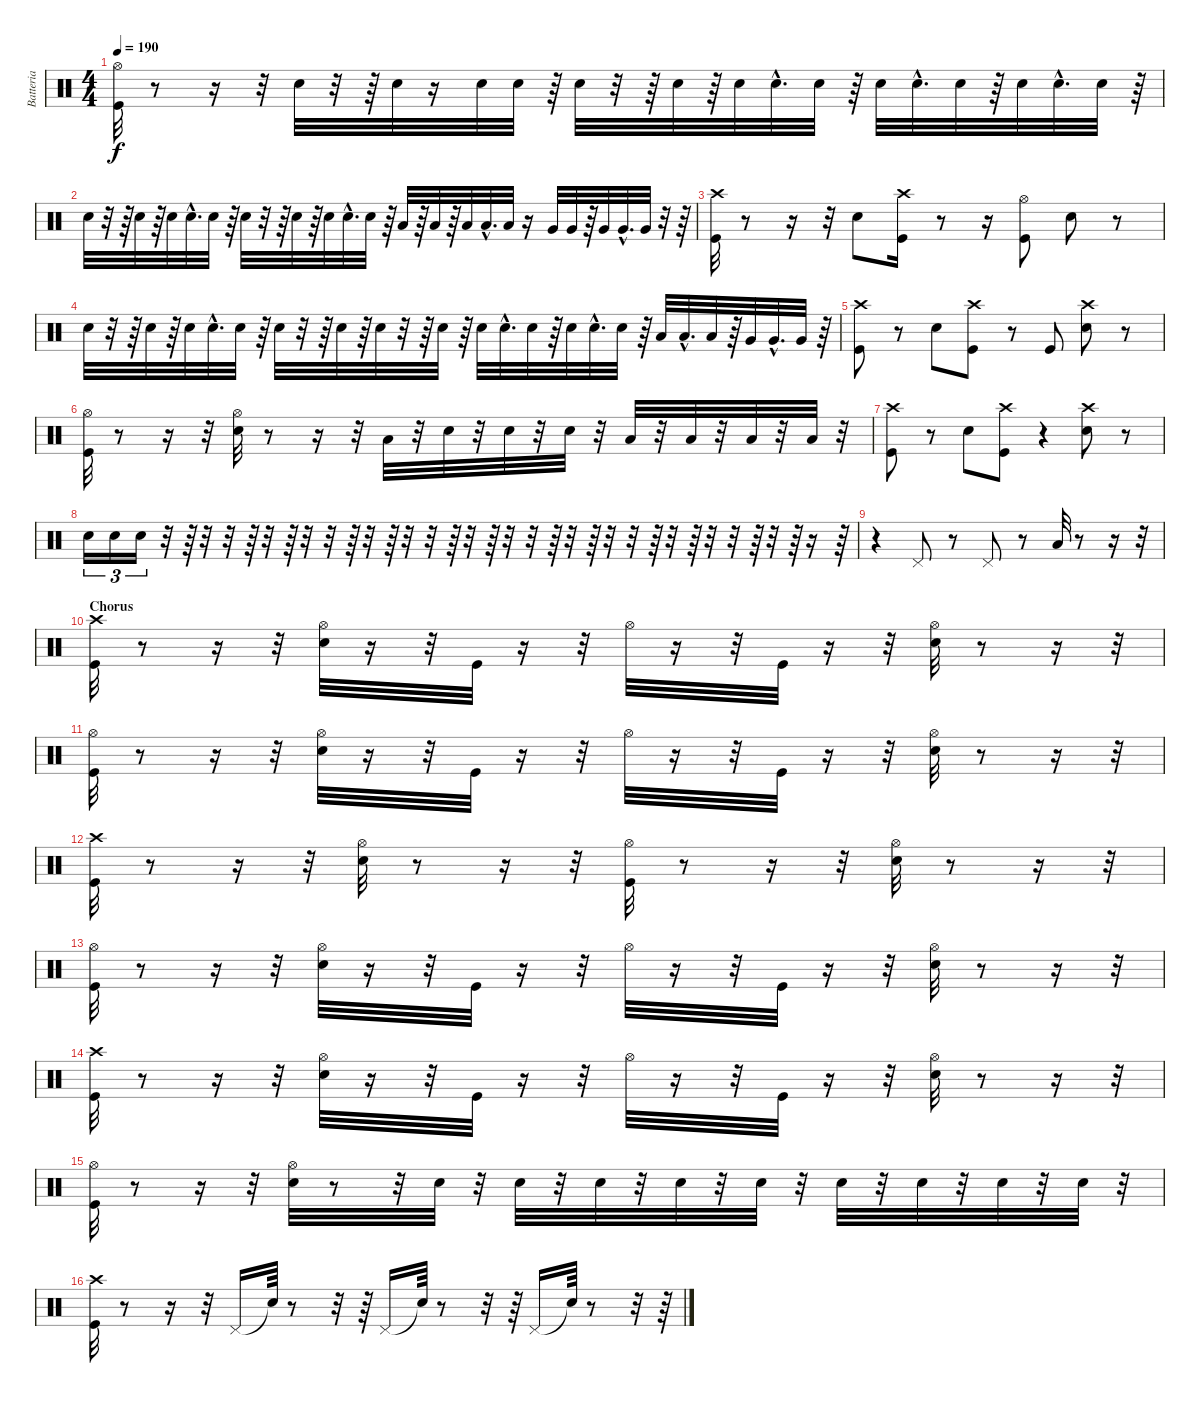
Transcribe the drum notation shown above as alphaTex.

\track ("Batteria" "Batteria") {instrument percussion}
\staff {score}
\articulation defaults
\ts (4 4)
\tempo 190
\clef neutral
\ks c
("Hi-Hat (open)" "Kick (hit)").32{dy f} r.8 r.16 r.32 "Snare (hit) 2".32 r.32 r.64 "Snare (hit) 2".32 r.16 "Snare (hit) 2".32 "Snare (hit) 2".32 r.64 "Snare (hit) 2".32 r.32 r.64 "Snare (hit) 2".32 r.64 "Snare (hit) 2".32 "Snare (hit) 2"{hac}.32{d} "Snare (hit) 2".32 r.64 "Snare (hit) 2".32 "Snare (hit) 2"{hac}.32{d} "Snare (hit) 2".32 r.64 "Snare (hit) 2".32 "Snare (hit) 2"{hac}.32{d} "Snare (hit) 2".32 r.64 |
"Snare (hit) 2".32 r.32 r.64 "Snare (hit) 2".32 r.64 "Snare (hit) 2".32 "Snare (hit) 2"{hac}.32{d} "Snare (hit) 2".32 r.64 "Snare (hit) 2".32 r.32 r.64 "Snare (hit) 2".32 r.64 "Snare (hit) 2".32 "Snare (hit) 2"{hac}.32{d} "Snare (hit) 2".32 r.64 "Low Tom (hit)".32 r.64 "Low Tom (hit)".32 r.64 "Low Tom (hit)".32 "Low Tom (hit)"{hac}.32{d} "Low Tom (hit)".32 r.16 "Very Low Tom (hit)".32 "Very Low Tom (hit)".32 r.64 "Very Low Tom (hit)".32 "Very Low Tom (hit)"{hac}.32{d} "Very Low Tom (hit)".32 r.32 r.64 |
("Crash high (hit)" "Kick (hit)").32 r.8 r.16 r.32 "Snare (hit) 2".8 ("Crash high (hit)" "Kick (hit)").16 r.8 r.16 ("Hi-Hat (open)" "Kick (hit)").8 "Snare (hit) 2".8 r.8 |
"Snare (hit) 2".32 r.32 r.64 "Snare (hit) 2".32 r.64 "Snare (hit) 2".32 "Snare (hit) 2"{hac}.32{d} "Snare (hit) 2".32 r.64 "Snare (hit) 2".32 r.32 r.64 "Snare (hit) 2".32 r.64 "Snare (hit) 2".32 r.32 r.64 "Snare (hit) 2".32 r.64 "Snare (hit) 2".32 "Snare (hit) 2"{hac}.32{d} "Snare (hit) 2".32 r.64 "Snare (hit) 2".32 "Snare (hit) 2"{hac}.32{d} "Snare (hit) 2".32 r.64 "Low Tom (hit)".32 "Low Tom (hit)"{hac}.32{d} "Low Tom (hit)".32 r.64 "Very Low Tom (hit)".32 "Very Low Tom (hit)"{hac}.32{d} "Very Low Tom (hit)".32 r.64 |
("Crash high (hit)" "Kick (hit)").8 r.8 "Snare (hit) 2".8 ("Kick (hit)" "Crash high (hit)").8 r.8 "Kick (hit)".8 ("Crash high (hit)" "Snare (hit) 2").8 r.8 |
("Hi-Hat (open)" "Kick (hit)").32 r.8 r.16 r.32 ("Hi-Hat (open)" "Snare (hit) 2").32 r.8 r.16 r.32 "Low Tom (hit)".32 r.32 "Snare (hit) 2".32 r.32 "Snare (hit) 2".32 r.32 "Snare (hit) 2".32 r.32 "Low Tom (hit)".32 r.32 "Low Tom (hit)".32 r.32 "Low Tom (hit)".32 r.32 "Low Tom (hit)".32 r.32 |
("Crash high (hit)" "Kick (hit)").8 r.8 "Snare (hit) 2".8 ("Crash high (hit)" "Kick (hit)").8 r.4 ("Crash high (hit)" "Snare (hit) 2").8 r.8 |
"Snare (hit) 2".16{tu (3 2)} "Snare (hit) 2".16{tu (3 2)} "Snare (hit) 2".16{tu (3 2)} r.32 r.64 r.32 r.32 r.64 r.32 r.64 r.32 r.32 r.64 r.32 r.64 r.32 r.32 r.64 r.32 r.64 r.32 r.32 r.64 r.32 r.64 r.32 r.32 r.64 r.32 r.64 r.32 r.32 r.64 r.32 r.64 r.16 r.64 |
r.4 "Pedal Hi-Hat (hit)".8 r.8 "Pedal Hi-Hat (hit)".8 r.8 "Low Tom (hit)".32 r.8 r.16 r.32 |
\section ("" "Chorus")
("Crash high (hit)" "Kick (hit)").32 r.8 r.16 r.32 ("Hi-Hat (open)" "Snare (hit) 2").32 r.16 r.32 "Kick (hit)".32 r.16 r.32 "Hi-Hat (open)".32 r.16 r.32 "Kick (hit)".32 r.16 r.32 ("Hi-Hat (open)" "Snare (hit) 2").32 r.8 r.16 r.32 |
("Kick (hit)" "Hi-Hat (open)").32 r.8 r.16 r.32 ("Snare (hit) 2" "Hi-Hat (open)").32 r.16 r.32 "Kick (hit)".32 r.16 r.32 "Hi-Hat (open)".32 r.16 r.32 "Kick (hit)".32 r.16 r.32 ("Snare (hit) 2" "Hi-Hat (open)").32 r.8 r.16 r.32 |
("Kick (hit)" "Crash high (hit)").32 r.8 r.16 r.32 ("Snare (hit) 2" "Hi-Hat (open)").32 r.8 r.16 r.32 ("Kick (hit)" "Hi-Hat (open)").32 r.8 r.16 r.32 ("Hi-Hat (open)" "Snare (hit) 2").32 r.8 r.16 r.32 |
("Kick (hit)" "Hi-Hat (open)").32 r.8 r.16 r.32 ("Hi-Hat (open)" "Snare (hit) 2").32 r.16 r.32 "Kick (hit)".32 r.16 r.32 "Hi-Hat (open)".32 r.16 r.32 "Kick (hit)".32 r.16 r.32 ("Hi-Hat (open)" "Snare (hit) 2").32 r.8 r.16 r.32 |
("Crash high (hit)" "Kick (hit)").32 r.8 r.16 r.32 ("Hi-Hat (open)" "Snare (hit) 2").32 r.16 r.32 "Kick (hit)".32 r.16 r.32 "Hi-Hat (open)".32 r.16 r.32 "Kick (hit)".32 r.16 r.32 ("Hi-Hat (open)" "Snare (hit) 2").32 r.8 r.16 r.32 |
("Hi-Hat (open)" "Kick (hit)").32 r.8 r.16 r.32 ("Snare (hit) 2" "Hi-Hat (open)").32 r.8 r.32 "Snare (hit) 2".32 r.32 "Snare (hit) 2".32 r.32 "Snare (hit) 2".32 r.32 "Snare (hit) 2".32 r.32 "Snare (hit) 2".32 r.32 "Snare (hit) 2".32 r.32 "Snare (hit) 2".32 r.32 "Snare (hit) 2".32 r.32 "Snare (hit) 2".32 r.32 |
("Kick (hit)" "Crash high (hit)").32 r.8 r.16 r.32 "Pedal Hi-Hat (hit)".16 "Snare (hit)"{t}.64 r.8 r.32 r.64 "Pedal Hi-Hat (hit)".16 "Snare (hit)"{t}.64 r.8 r.32 r.64 "Pedal Hi-Hat (hit)".16 "Snare (hit)"{t}.64 r.8 r.32 r.64
